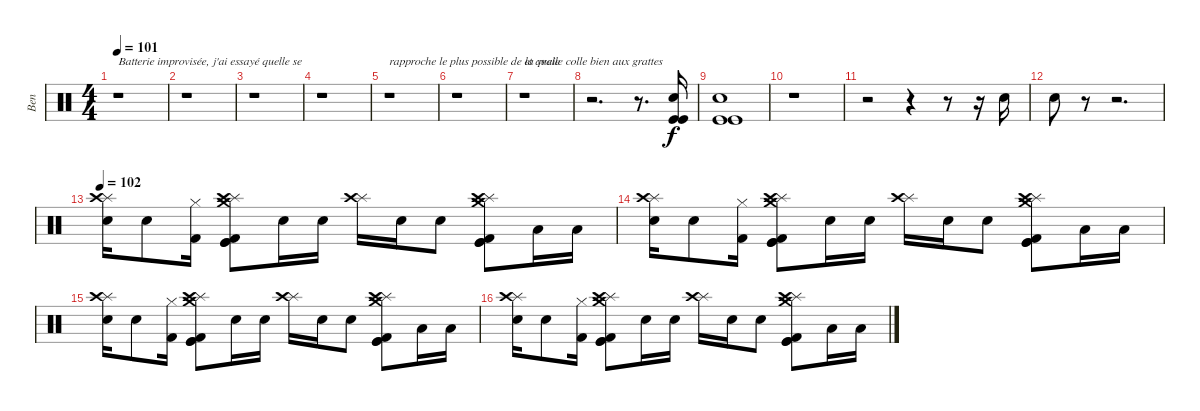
\track ("Ben" "Ben") {instrument percussion}
\staff {score}
\articulation defaults
\ts (4 4)
\tempo 101
\tempo 115
\tempo 101
\clef neutral
\ks c
r.1{txt "Batterie improvisée, j'ai essayé quelle se" dy f} |
r.1 |
r.1 |
r.1 |
r.1{txt "rapproche le plus possible de la vraie"} |
r.1 |
r.1{txt "et quelle colle bien aux grattes"} |
r.2{d} r.8{d} ("Electric Snare (hit)" "Kick (hit)" "Kick (hit)").16{volume 16} |
("Electric Snare (hit)" "Kick (hit)" "Kick (hit)").1 |
r.1 |
r.2 r.4 r.8 r.16 "Electric Snare (hit)".16 |
"Electric Snare (hit)".8 r.8 r.2{d} |
\tempo 102
("Splash (hit)" "Crash high (hit)" "Electric Snare (hit)").16 "Electric Snare (hit)".8 ("Hi-Hat (closed)" "Kick (hit) 2").16 ("Splash (hit)" "Crash high (hit)" "Crash medium (hit)" "Kick (hit) 2" "Kick (hit)" "Kick (hit)").8 "Electric Snare (hit)".16 "Electric Snare (hit)".16 ("Splash (hit)" "Crash high (hit)").16 "Electric Snare (hit)".16 "Electric Snare (hit)".8 ("Splash (hit)" "Crash high (hit)" "Crash medium (hit)" "Kick (hit) 2" "Kick (hit)" "Kick (hit)").8 "Low Floor Tom (hit)".16 "Low Floor Tom (hit)".16 |
("Splash (hit)" "Crash high (hit)" "Electric Snare (hit)").16 "Electric Snare (hit)".8 ("Hi-Hat (closed)" "Kick (hit) 2").16 ("Splash (hit)" "Crash high (hit)" "Crash medium (hit)" "Kick (hit) 2" "Kick (hit)" "Kick (hit)").8 "Electric Snare (hit)".16 "Electric Snare (hit)".16 ("Splash (hit)" "Crash high (hit)").16 "Electric Snare (hit)".16 "Electric Snare (hit)".8 ("Splash (hit)" "Crash high (hit)" "Crash medium (hit)" "Kick (hit) 2" "Kick (hit)" "Kick (hit)").8 "Low Floor Tom (hit)".16 "Low Floor Tom (hit)".16 |
("Splash (hit)" "Crash high (hit)" "Electric Snare (hit)").16 "Electric Snare (hit)".8 ("Hi-Hat (closed)" "Kick (hit) 2").16 ("Splash (hit)" "Crash high (hit)" "Crash medium (hit)" "Kick (hit) 2" "Kick (hit)" "Kick (hit)").8 "Electric Snare (hit)".16 "Electric Snare (hit)".16 ("Splash (hit)" "Crash high (hit)").16 "Electric Snare (hit)".16 "Electric Snare (hit)".8 ("Splash (hit)" "Crash high (hit)" "Crash medium (hit)" "Kick (hit) 2" "Kick (hit)" "Kick (hit)").8 "Low Floor Tom (hit)".16 "Low Floor Tom (hit)".16 |
("Splash (hit)" "Crash high (hit)" "Electric Snare (hit)").16 "Electric Snare (hit)".8 ("Hi-Hat (closed)" "Kick (hit) 2").16 ("Splash (hit)" "Crash high (hit)" "Crash medium (hit)" "Kick (hit) 2" "Kick (hit)" "Kick (hit)").8 "Electric Snare (hit)".16 "Electric Snare (hit)".16 ("Splash (hit)" "Crash high (hit)").16 "Electric Snare (hit)".16 "Electric Snare (hit)".8 ("Splash (hit)" "Crash high (hit)" "Crash medium (hit)" "Kick (hit) 2" "Kick (hit)" "Kick (hit)").8 "Low Floor Tom (hit)".16 "Low Floor Tom (hit)".16
